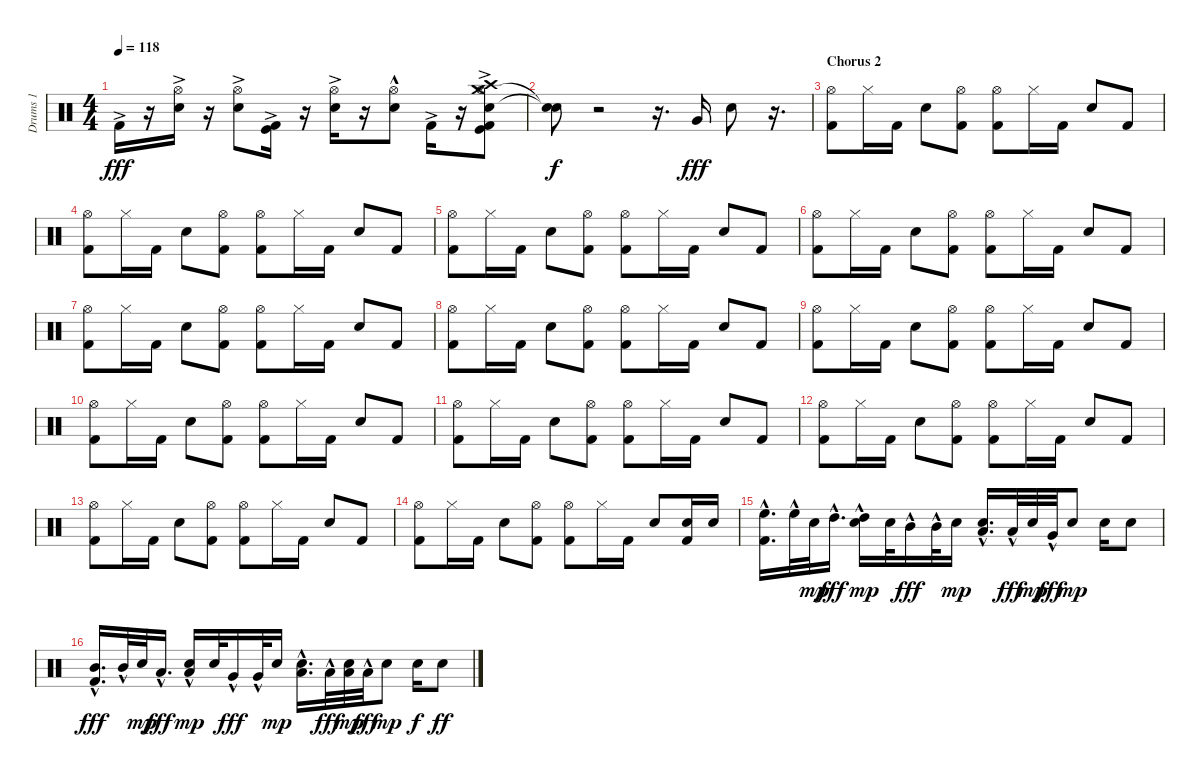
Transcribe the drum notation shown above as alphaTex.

\track ("Drums 1" "Drums 1") {instrument percussion}
\staff {score}
\articulation defaults
\ts (4 4)
\tempo 118
\clef neutral
\ks c "Kick (hit) 2"{ac}.16{dy fff}
r.16 ("Hi-Hat (open)"{ac} "Electric Snare (hit)"{ac}).16 r.16 ("Hi-Hat (open)"{ac} "Electric Snare (hit)"{ac}).8 ("Kick (hit) 2"{ac} "Kick (hit)").16 r.16 ("Hi-Hat (open)" "Electric Snare (hit)"{ac}).16 r.16 ("Hi-Hat (open)" "Electric Snare (hit)"{hac}).8 "Kick (hit) 2"{ac}.16 r.16 ("Hi-Hat (open)"{ac} "Electric Snare (hit)"{ac} "Kick (hit) 2" "Kick (hit)" "Crash high (hit)" "Crash medium (hit)").8 |
("Snare (hit)"{t} "Snare (hit)"{t}).8{dy f} r.2 r.16{d} "Very Low Tom (hit)".16{dy fff} "Electric Snare (hit)".8 r.16{d} |
\section ("" "Chorus 2")
("Hi-Hat (open)" "Kick (hit) 2").8 "Hi-Hat (closed)".16 "Kick (hit) 2".16 "Electric Snare (hit)".8 ("Hi-Hat (open)" "Kick (hit) 2").8 ("Hi-Hat (open)" "Kick (hit) 2").8 "Hi-Hat (closed)".16 "Kick (hit) 2".16 "Electric Snare (hit)".8 "Kick (hit) 2".8 |
("Hi-Hat (open)" "Kick (hit) 2").8 "Hi-Hat (closed)".16 "Kick (hit) 2".16 "Electric Snare (hit)".8 ("Hi-Hat (open)" "Kick (hit) 2").8 ("Hi-Hat (open)" "Kick (hit) 2").8 "Hi-Hat (closed)".16 "Kick (hit) 2".16 "Electric Snare (hit)".8 "Kick (hit) 2".8 |
("Hi-Hat (open)" "Kick (hit) 2").8 "Hi-Hat (closed)".16 "Kick (hit) 2".16 "Electric Snare (hit)".8 ("Hi-Hat (open)" "Kick (hit) 2").8 ("Hi-Hat (open)" "Kick (hit) 2").8 "Hi-Hat (closed)".16 "Kick (hit) 2".16 "Electric Snare (hit)".8 "Kick (hit) 2".8 |
("Hi-Hat (open)" "Kick (hit) 2").8 "Hi-Hat (closed)".16 "Kick (hit) 2".16 "Electric Snare (hit)".8 ("Hi-Hat (open)" "Kick (hit) 2").8 ("Hi-Hat (open)" "Kick (hit) 2").8 "Hi-Hat (closed)".16 "Kick (hit) 2".16 "Electric Snare (hit)".8 "Kick (hit) 2".8 |
("Hi-Hat (open)" "Kick (hit) 2").8 "Hi-Hat (closed)".16 "Kick (hit) 2".16 "Electric Snare (hit)".8 ("Hi-Hat (open)" "Kick (hit) 2").8 ("Hi-Hat (open)" "Kick (hit) 2").8 "Hi-Hat (closed)".16 "Kick (hit) 2".16 "Electric Snare (hit)".8 "Kick (hit) 2".8 |
("Hi-Hat (open)" "Kick (hit) 2").8 "Hi-Hat (closed)".16 "Kick (hit) 2".16 "Electric Snare (hit)".8 ("Hi-Hat (open)" "Kick (hit) 2").8 ("Hi-Hat (open)" "Kick (hit) 2").8 "Hi-Hat (closed)".16 "Kick (hit) 2".16 "Electric Snare (hit)".8 "Kick (hit) 2".8 |
("Hi-Hat (open)" "Kick (hit) 2").8 "Hi-Hat (closed)".16 "Kick (hit) 2".16 "Electric Snare (hit)".8 ("Hi-Hat (open)" "Kick (hit) 2").8 ("Hi-Hat (open)" "Kick (hit) 2").8 "Hi-Hat (closed)".16 "Kick (hit) 2".16 "Electric Snare (hit)".8 "Kick (hit) 2".8 |
("Hi-Hat (open)" "Kick (hit) 2").8 "Hi-Hat (closed)".16 "Kick (hit) 2".16 "Electric Snare (hit)".8 ("Hi-Hat (open)" "Kick (hit) 2").8 ("Hi-Hat (open)" "Kick (hit) 2").8 "Hi-Hat (closed)".16 "Kick (hit) 2".16 "Electric Snare (hit)".8 "Kick (hit) 2".8 |
("Hi-Hat (open)" "Kick (hit) 2").8 "Hi-Hat (closed)".16 "Kick (hit) 2".16 "Electric Snare (hit)".8 ("Hi-Hat (open)" "Kick (hit) 2").8 ("Hi-Hat (open)" "Kick (hit) 2").8 "Hi-Hat (closed)".16 "Kick (hit) 2".16 "Electric Snare (hit)".8 "Kick (hit) 2".8 |
("Hi-Hat (open)" "Kick (hit) 2").8 "Hi-Hat (closed)".16 "Kick (hit) 2".16 "Electric Snare (hit)".8 ("Hi-Hat (open)" "Kick (hit) 2").8 ("Hi-Hat (open)" "Kick (hit) 2").8 "Hi-Hat (closed)".16 "Kick (hit) 2".16 "Electric Snare (hit)".8 "Kick (hit) 2".8 |
("Hi-Hat (open)" "Kick (hit) 2").8 "Hi-Hat (closed)".16 "Kick (hit) 2".16 "Electric Snare (hit)".8 ("Hi-Hat (open)" "Kick (hit) 2").8 ("Hi-Hat (open)" "Kick (hit) 2").8 "Hi-Hat (closed)".16 "Kick (hit) 2".16 "Electric Snare (hit)".8 "Kick (hit) 2".8 |
("Hi-Hat (open)" "Kick (hit) 2").8 "Hi-Hat (closed)".16 "Kick (hit) 2".16 "Electric Snare (hit)".8 ("Hi-Hat (open)" "Kick (hit) 2").8 ("Hi-Hat (open)" "Kick (hit) 2").8 "Hi-Hat (closed)".16 "Kick (hit) 2".16 "Electric Snare (hit)".8 ("Kick (hit) 2" "Electric Snare (hit)").16 "Electric Snare (hit)".16 |
("High Floor Tom (hit)"{hac} "Kick (hit) 2").16{d volume 10 balance 0} "High Floor Tom (hit)"{hac}.32 "Electric Snare (hit)".32{dy mp} "High Tom (hit)"{hac}.16{d dy fff} ("High Tom (hit)"{hac} "Electric Snare (hit)").16{dy mp} "Electric Snare (hit)".32 "Mid Tom (hit)"{hac}.16{dy fff} "Mid Tom (hit)"{hac}.32 "Electric Snare (hit)".16{dy mp} ("Low Tom (hit)"{hac} "Electric Snare (hit)").16{d} "Low Tom (hit)"{hac}.32{dy fff} "Electric Snare (hit)".32{dy mp} "Very Low Tom (hit)"{hac}.32{dy fff} "Electric Snare (hit)".8{dy mp} "Electric Snare (hit)".16 "Electric Snare (hit)".8 |
("Mid Tom (hit)"{hac} "Kick (hit) 2").16{d dy fff balance 16} "Mid Tom (hit)"{hac}.32 "Electric Snare (hit)".32{dy mp} "Low Tom (hit)"{hac}.16{d dy fff} ("Low Tom (hit)"{hac} "Electric Snare (hit)").16{dy mp} "Electric Snare (hit)".32 "Very Low Tom (hit)"{hac}.16{dy fff} "Very Low Tom (hit)"{hac}.32 "Electric Snare (hit)".16{dy mp} ("Low Floor Tom (hit)"{hac} "Electric Snare (hit)").16{d} "Low Floor Tom (hit)"{hac}.32{dy fff} ("Low Floor Tom (hit)" "Electric Snare (hit)").32{dy mp} "Low Floor Tom (hit)"{hac}.32{dy fff} "Electric Snare (hit)".8{dy mp} "Electric Snare (hit)".16{dy f} "Electric Snare (hit)".8{dy ff}
